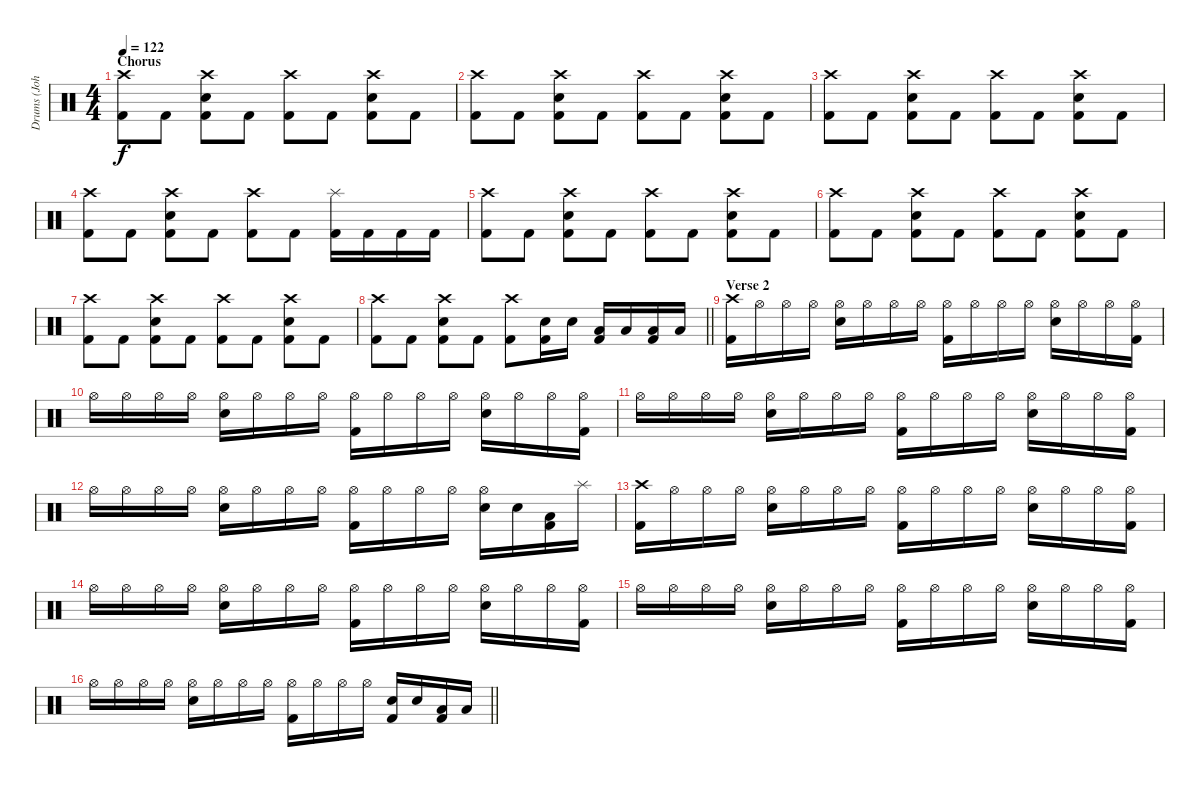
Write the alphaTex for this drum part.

\track ("Drums (John)" "Drums (Joh") {instrument percussion}
\staff {score}
\articulation defaults
\ts (4 4)
\section ("" "Chorus")
\tempo 122
\clef neutral
\ks c
("Crash high (hit)" "Kick (hit) 2").8{dy f} "Kick (hit) 2".8 ("Crash high (hit)" "Electric Snare (hit)" "Kick (hit) 2").8 "Kick (hit) 2".8 ("Crash high (hit)" "Kick (hit) 2").8 "Kick (hit) 2".8 ("Crash high (hit)" "Electric Snare (hit)" "Kick (hit) 2").8 "Kick (hit) 2".8 |
("Crash high (hit)" "Kick (hit) 2").8 "Kick (hit) 2".8 ("Crash high (hit)" "Electric Snare (hit)" "Kick (hit) 2").8 "Kick (hit) 2".8 ("Crash high (hit)" "Kick (hit) 2").8 "Kick (hit) 2".8 ("Crash high (hit)" "Electric Snare (hit)" "Kick (hit) 2").8 "Kick (hit) 2".8 |
("Crash high (hit)" "Kick (hit) 2").8 "Kick (hit) 2".8 ("Crash high (hit)" "Electric Snare (hit)" "Kick (hit) 2").8 "Kick (hit) 2".8 ("Crash high (hit)" "Kick (hit) 2").8 "Kick (hit) 2".8 ("Crash high (hit)" "Electric Snare (hit)" "Kick (hit) 2").8 "Kick (hit) 2".8 |
("Crash high (hit)" "Kick (hit) 2").8 "Kick (hit) 2".8 ("Crash high (hit)" "Electric Snare (hit)" "Kick (hit) 2").8 "Kick (hit) 2".8 ("Crash high (hit)" "Kick (hit) 2").8 "Kick (hit) 2".8 ("Splash (hit)" "Kick (hit) 2").16 "Kick (hit) 2".16 "Kick (hit) 2".16 "Kick (hit) 2".16 |
("Crash high (hit)" "Kick (hit) 2").8 "Kick (hit) 2".8 ("Crash high (hit)" "Electric Snare (hit)" "Kick (hit) 2").8 "Kick (hit) 2".8 ("Crash high (hit)" "Kick (hit) 2").8 "Kick (hit) 2".8 ("Crash high (hit)" "Electric Snare (hit)" "Kick (hit) 2").8 "Kick (hit) 2".8 |
("Crash high (hit)" "Kick (hit) 2").8 "Kick (hit) 2".8 ("Crash high (hit)" "Electric Snare (hit)" "Kick (hit) 2").8 "Kick (hit) 2".8 ("Crash high (hit)" "Kick (hit) 2").8 "Kick (hit) 2".8 ("Crash high (hit)" "Electric Snare (hit)" "Kick (hit) 2").8 "Kick (hit) 2".8 |
("Crash high (hit)" "Kick (hit) 2").8 "Kick (hit) 2".8 ("Crash high (hit)" "Electric Snare (hit)" "Kick (hit) 2").8 "Kick (hit) 2".8 ("Crash high (hit)" "Kick (hit) 2").8 "Kick (hit) 2".8 ("Crash high (hit)" "Electric Snare (hit)" "Kick (hit) 2").8 "Kick (hit) 2".8 |
\barLineRight lightlight
("Crash high (hit)" "Kick (hit) 2").8 "Kick (hit) 2".8 ("Crash high (hit)" "Electric Snare (hit)" "Kick (hit) 2").8 "Kick (hit) 2".8 ("Crash high (hit)" "Kick (hit) 2").8 ("Electric Snare (hit)" "Kick (hit) 2").16 "Electric Snare (hit)".16 ("Low Tom (hit)" "Kick (hit) 2").16 "Low Tom (hit)".16 ("Low Tom (hit)" "Kick (hit) 2").16 "Low Tom (hit)".16 |
\section ("" "Verse 2")
("Crash high (hit)" "Kick (hit) 2").16 "Hi-Hat (open)".16 "Hi-Hat (open)".16 "Hi-Hat (open)".16 ("Hi-Hat (open)" "Electric Snare (hit)").16 "Hi-Hat (open)".16 "Hi-Hat (open)".16 "Hi-Hat (open)".16 ("Hi-Hat (open)" "Kick (hit) 2").16 "Hi-Hat (open)".16 "Hi-Hat (open)".16 "Hi-Hat (open)".16 ("Hi-Hat (open)" "Electric Snare (hit)").16 "Hi-Hat (open)".16 "Hi-Hat (open)".16 ("Hi-Hat (open)" "Kick (hit) 2").16 |
"Hi-Hat (open)".16 "Hi-Hat (open)".16 "Hi-Hat (open)".16 "Hi-Hat (open)".16 ("Hi-Hat (open)" "Electric Snare (hit)").16 "Hi-Hat (open)".16 "Hi-Hat (open)".16 "Hi-Hat (open)".16 ("Hi-Hat (open)" "Kick (hit) 2").16 "Hi-Hat (open)".16 "Hi-Hat (open)".16 "Hi-Hat (open)".16 ("Hi-Hat (open)" "Electric Snare (hit)").16 "Hi-Hat (open)".16 "Hi-Hat (open)".16 ("Hi-Hat (open)" "Kick (hit) 2").16 |
"Hi-Hat (open)".16 "Hi-Hat (open)".16 "Hi-Hat (open)".16 "Hi-Hat (open)".16 ("Hi-Hat (open)" "Electric Snare (hit)").16 "Hi-Hat (open)".16 "Hi-Hat (open)".16 "Hi-Hat (open)".16 ("Hi-Hat (open)" "Kick (hit) 2").16 "Hi-Hat (open)".16 "Hi-Hat (open)".16 "Hi-Hat (open)".16 ("Hi-Hat (open)" "Electric Snare (hit)").16 "Hi-Hat (open)".16 "Hi-Hat (open)".16 ("Hi-Hat (open)" "Kick (hit) 2").16 |
"Hi-Hat (open)".16 "Hi-Hat (open)".16 "Hi-Hat (open)".16 "Hi-Hat (open)".16 ("Hi-Hat (open)" "Electric Snare (hit)").16 "Hi-Hat (open)".16 "Hi-Hat (open)".16 "Hi-Hat (open)".16 ("Hi-Hat (open)" "Kick (hit) 2").16 "Hi-Hat (open)".16 "Hi-Hat (open)".16 "Hi-Hat (open)".16 ("Hi-Hat (open)" "Electric Snare (hit)").16 "Electric Snare (hit)".16 ("Low Tom (hit)" "Kick (hit) 2").16 "Splash (hit)".16 |
("Crash high (hit)" "Kick (hit) 2").16 "Hi-Hat (open)".16 "Hi-Hat (open)".16 "Hi-Hat (open)".16 ("Hi-Hat (open)" "Electric Snare (hit)").16 "Hi-Hat (open)".16 "Hi-Hat (open)".16 "Hi-Hat (open)".16 ("Hi-Hat (open)" "Kick (hit) 2").16 "Hi-Hat (open)".16 "Hi-Hat (open)".16 "Hi-Hat (open)".16 ("Hi-Hat (open)" "Electric Snare (hit)").16 "Hi-Hat (open)".16 "Hi-Hat (open)".16 ("Hi-Hat (open)" "Kick (hit) 2").16 |
"Hi-Hat (open)".16 "Hi-Hat (open)".16 "Hi-Hat (open)".16 "Hi-Hat (open)".16 ("Hi-Hat (open)" "Electric Snare (hit)").16 "Hi-Hat (open)".16 "Hi-Hat (open)".16 "Hi-Hat (open)".16 ("Hi-Hat (open)" "Kick (hit) 2").16 "Hi-Hat (open)".16 "Hi-Hat (open)".16 "Hi-Hat (open)".16 ("Hi-Hat (open)" "Electric Snare (hit)").16 "Hi-Hat (open)".16 "Hi-Hat (open)".16 ("Hi-Hat (open)" "Kick (hit) 2").16 |
"Hi-Hat (open)".16 "Hi-Hat (open)".16 "Hi-Hat (open)".16 "Hi-Hat (open)".16 ("Hi-Hat (open)" "Electric Snare (hit)").16 "Hi-Hat (open)".16 "Hi-Hat (open)".16 "Hi-Hat (open)".16 ("Hi-Hat (open)" "Kick (hit) 2").16 "Hi-Hat (open)".16 "Hi-Hat (open)".16 "Hi-Hat (open)".16 ("Hi-Hat (open)" "Electric Snare (hit)").16 "Hi-Hat (open)".16 "Hi-Hat (open)".16 ("Hi-Hat (open)" "Kick (hit) 2").16 |
\barLineRight lightlight "Hi-Hat (open)".16 "Hi-Hat (open)".16 "Hi-Hat (open)".16 "Hi-Hat (open)".16
("Hi-Hat (open)" "Electric Snare (hit)").16 "Hi-Hat (open)".16 "Hi-Hat (open)".16 "Hi-Hat (open)".16 ("Hi-Hat (open)" "Kick (hit) 2").16 "Hi-Hat (open)".16 "Hi-Hat (open)".16 "Hi-Hat (open)".16 ("Electric Snare (hit)" "Kick (hit) 2").16 "Electric Snare (hit)".16 ("Low Tom (hit)" "Kick (hit) 2").16 "Low Tom (hit)".16
